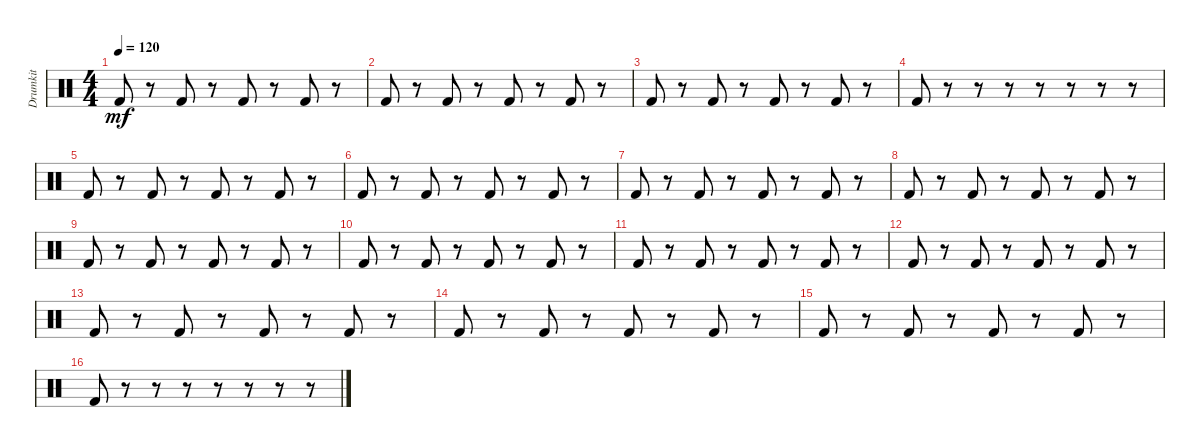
\track ("Drumkit" "Drumkit") {instrument percussion}
\staff {score}
\articulation defaults
\ts (4 4)
\tempo 120
\clef neutral
\ks c "Kick (hit) 2".8{dy mf}
r.8 "Kick (hit) 2".8 r.8 "Kick (hit) 2".8 r.8 "Kick (hit) 2".8 r.8 |
"Kick (hit) 2".8 r.8 "Kick (hit) 2".8 r.8 "Kick (hit) 2".8 r.8 "Kick (hit) 2".8 r.8 |
"Kick (hit) 2".8 r.8 "Kick (hit) 2".8 r.8 "Kick (hit) 2".8 r.8 "Kick (hit) 2".8 r.8 |
"Kick (hit) 2".8 r.8 r.8 r.8 r.8 r.8 r.8 r.8 |
"Kick (hit) 2".8 r.8 "Kick (hit) 2".8 r.8 "Kick (hit) 2".8 r.8 "Kick (hit) 2".8 r.8 |
"Kick (hit) 2".8 r.8 "Kick (hit) 2".8 r.8 "Kick (hit) 2".8 r.8 "Kick (hit) 2".8 r.8 |
"Kick (hit) 2".8 r.8 "Kick (hit) 2".8 r.8 "Kick (hit) 2".8 r.8 "Kick (hit) 2".8 r.8 |
"Kick (hit) 2".8 r.8 "Kick (hit) 2".8 r.8 "Kick (hit) 2".8 r.8 "Kick (hit) 2".8 r.8 |
"Kick (hit) 2".8 r.8 "Kick (hit) 2".8 r.8 "Kick (hit) 2".8 r.8 "Kick (hit) 2".8 r.8 |
"Kick (hit) 2".8 r.8 "Kick (hit) 2".8 r.8 "Kick (hit) 2".8 r.8 "Kick (hit) 2".8 r.8 |
"Kick (hit) 2".8 r.8 "Kick (hit) 2".8 r.8 "Kick (hit) 2".8 r.8 "Kick (hit) 2".8 r.8 |
"Kick (hit) 2".8 r.8 "Kick (hit) 2".8 r.8 "Kick (hit) 2".8 r.8 "Kick (hit) 2".8 r.8 |
"Kick (hit) 2".8 r.8 "Kick (hit) 2".8 r.8 "Kick (hit) 2".8 r.8 "Kick (hit) 2".8 r.8 |
"Kick (hit) 2".8 r.8 "Kick (hit) 2".8 r.8 "Kick (hit) 2".8 r.8 "Kick (hit) 2".8 r.8 |
"Kick (hit) 2".8 r.8 "Kick (hit) 2".8 r.8 "Kick (hit) 2".8 r.8 "Kick (hit) 2".8 r.8 |
"Kick (hit) 2".8 r.8 r.8 r.8 r.8 r.8 r.8 r.8
